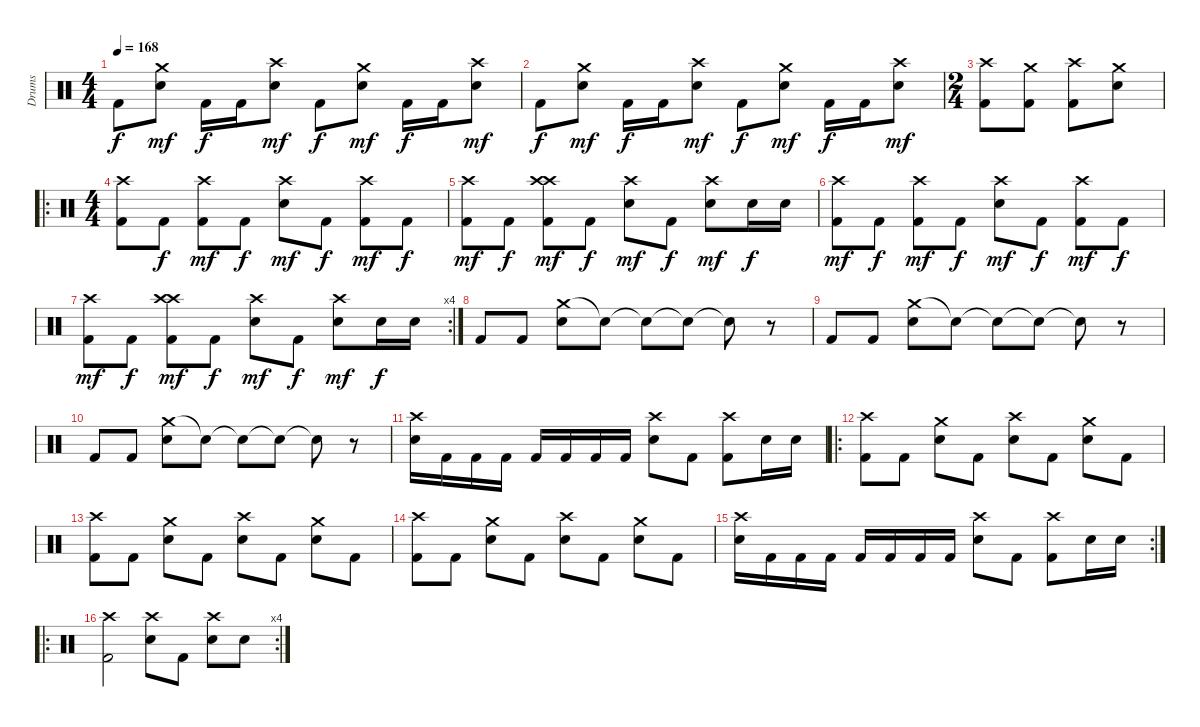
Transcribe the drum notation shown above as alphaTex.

\track ("Drums" "Drums") {instrument percussion}
\staff {score}
\articulation defaults
\ts (4 4)
\tempo 168
\clef neutral
\ks c "Kick (hit) 2".8{dy f}
("Crash medium (hit)" "Snare (hit) 2").8{dy mf} "Kick (hit) 2".16{dy f} "Kick (hit) 2".16 ("Crash high (hit)" "Snare (hit) 2").8{dy mf} "Kick (hit) 2".8{dy f} ("Crash medium (hit)" "Snare (hit) 2").8{dy mf} "Kick (hit) 2".16{dy f} "Kick (hit) 2".16 ("Crash high (hit)" "Snare (hit) 2").8{dy mf} |
"Kick (hit) 2".8{dy f} ("Crash medium (hit)" "Snare (hit) 2").8{dy mf} "Kick (hit) 2".16{dy f} "Kick (hit) 2".16 ("Crash high (hit)" "Snare (hit) 2").8{dy mf} "Kick (hit) 2".8{dy f} ("Crash medium (hit)" "Snare (hit) 2").8{dy mf} "Kick (hit) 2".16{dy f} "Kick (hit) 2".16 ("Crash high (hit)" "Snare (hit) 2").8{dy mf} |
\ts (2 4)
("Crash high (hit)" "Kick (hit) 2").8 ("Crash medium (hit)" "Kick (hit) 2").8 ("Crash high (hit)" "Kick (hit) 2").8 ("Crash medium (hit)" "Snare (hit) 2").8 |
\ro
\ts (4 4)
("Crash high (hit)" "Kick (hit) 2").8 "Kick (hit) 2".8{dy f} ("Crash high (hit)" "Kick (hit) 2").8{dy mf} "Kick (hit) 2".8{dy f} ("Crash high (hit)" "Snare (hit) 2").8{dy mf} "Kick (hit) 2".8{dy f} ("Crash high (hit)" "Kick (hit) 2").8{dy mf} "Kick (hit) 2".8{dy f} |
("Crash high (hit)" "Kick (hit) 2").8{dy mf} "Kick (hit) 2".8{dy f} ("Crash high (hit)" "Crash high (hit)" "Kick (hit) 2").8{dy mf} "Kick (hit) 2".8{dy f} ("Crash high (hit)" "Snare (hit) 2").8{dy mf} "Kick (hit) 2".8{dy f} ("Crash high (hit)" "Snare (hit) 2").8{dy mf} "Snare (hit) 2".16{dy f} "Snare (hit) 2".16 |
("Crash high (hit)" "Kick (hit) 2").8{dy mf} "Kick (hit) 2".8{dy f} ("Crash high (hit)" "Kick (hit) 2").8{dy mf} "Kick (hit) 2".8{dy f} ("Crash high (hit)" "Snare (hit) 2").8{dy mf} "Kick (hit) 2".8{dy f} ("Crash high (hit)" "Kick (hit) 2").8{dy mf} "Kick (hit) 2".8{dy f} |
\rc 4
("Crash high (hit)" "Kick (hit) 2").8{dy mf} "Kick (hit) 2".8{dy f} ("Crash high (hit)" "Crash high (hit)" "Kick (hit) 2").8{dy mf} "Kick (hit) 2".8{dy f} ("Crash high (hit)" "Snare (hit) 2").8{dy mf} "Kick (hit) 2".8{dy f} ("Crash high (hit)" "Snare (hit) 2").8{dy mf} "Snare (hit) 2".16{dy f} "Snare (hit) 2".16 |
"Kick (hit) 2".8 "Kick (hit) 2".8 ("Crash medium (hit)" "Snare (hit) 2").8 "Snare (hit)"{t}.8 "Snare (hit)"{t}.8 "Snare (hit)"{t}.8 "Snare (hit)"{t}.8 r.8 |
"Kick (hit) 2".8 "Kick (hit) 2".8 ("Crash medium (hit)" "Snare (hit) 2").8 "Snare (hit)"{t}.8 "Snare (hit)"{t}.8 "Snare (hit)"{t}.8 "Snare (hit)"{t}.8 r.8 |
"Kick (hit) 2".8 "Kick (hit) 2".8 ("Crash medium (hit)" "Snare (hit) 2").8 "Snare (hit)"{t}.8 "Snare (hit)"{t}.8 "Snare (hit)"{t}.8 "Snare (hit)"{t}.8 r.8 |
("Crash high (hit)" "Snare (hit) 2").16 "Kick (hit) 2".16 "Kick (hit) 2".16 "Kick (hit) 2".16 "Kick (hit) 2".16 "Kick (hit) 2".16 "Kick (hit) 2".16 "Kick (hit) 2".16 ("Crash high (hit)" "Snare (hit) 2").8 "Kick (hit) 2".8 ("Crash high (hit)" "Kick (hit) 2").8 "Snare (hit) 2".16 "Snare (hit) 2".16 |
\ro
("Crash high (hit)" "Kick (hit) 2").8 "Kick (hit) 2".8 ("Crash medium (hit)" "Snare (hit) 2").8 "Kick (hit) 2".8 ("Crash high (hit)" "Snare (hit) 2").8 "Kick (hit) 2".8 ("Crash medium (hit)" "Snare (hit) 2").8 "Kick (hit) 2".8 |
("Crash high (hit)" "Kick (hit) 2").8 "Kick (hit) 2".8 ("Crash medium (hit)" "Snare (hit) 2").8 "Kick (hit) 2".8 ("Crash high (hit)" "Snare (hit) 2").8 "Kick (hit) 2".8 ("Crash medium (hit)" "Snare (hit) 2").8 "Kick (hit) 2".8 |
("Crash high (hit)" "Kick (hit) 2").8 "Kick (hit) 2".8 ("Crash medium (hit)" "Snare (hit) 2").8 "Kick (hit) 2".8 ("Crash high (hit)" "Snare (hit) 2").8 "Kick (hit) 2".8 ("Crash medium (hit)" "Snare (hit) 2").8 "Kick (hit) 2".8 |
\rc 2
("Crash high (hit)" "Snare (hit) 2").16 "Kick (hit) 2".16 "Kick (hit) 2".16 "Kick (hit) 2".16 "Kick (hit) 2".16 "Kick (hit) 2".16 "Kick (hit) 2".16 "Kick (hit) 2".16 ("Crash high (hit)" "Snare (hit) 2").8 "Kick (hit) 2".8 ("Crash high (hit)" "Kick (hit) 2").8 "Snare (hit) 2".16 "Snare (hit) 2".16 |
\ro
\rc 4
("Crash high (hit)" "Kick (hit) 2").2 ("Crash high (hit)" "Snare (hit) 2").8 "Kick (hit) 2".8 ("Crash high (hit)" "Snare (hit) 2").8 "Snare (hit) 2".8
